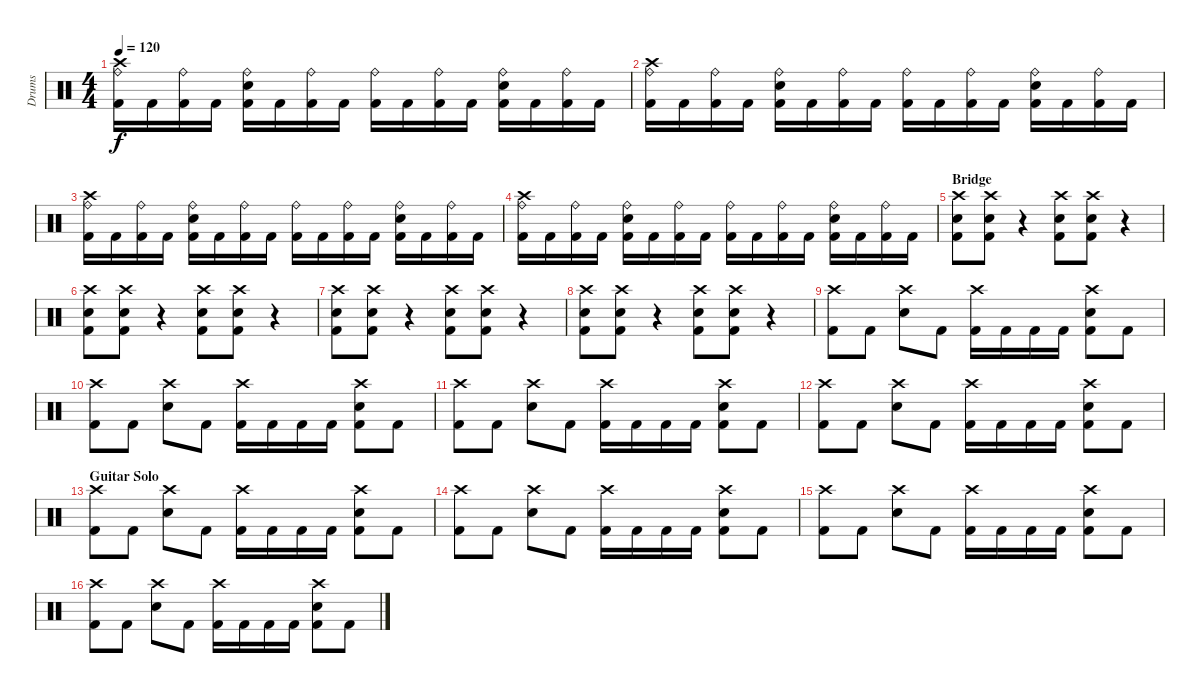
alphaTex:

\track ("Drums" "Drums") {instrument percussion}
\staff {score}
\articulation defaults
\ts (4 4)
\tempo 120
\clef neutral
\ks c
("Crash high (hit)" "Ride (bell)" "Kick (hit) 2").16{dy f} "Kick (hit) 2".16 ("Ride (bell)" "Kick (hit) 2").16 "Kick (hit) 2".16 ("Ride (bell)" "Electric Snare (hit)" "Kick (hit) 2").16 "Kick (hit) 2".16 ("Ride (bell)" "Kick (hit) 2").16 "Kick (hit) 2".16 ("Ride (bell)" "Kick (hit) 2").16 "Kick (hit) 2".16 ("Ride (bell)" "Kick (hit) 2").16 "Kick (hit) 2".16 ("Ride (bell)" "Electric Snare (hit)" "Kick (hit) 2").16 "Kick (hit) 2".16 ("Ride (bell)" "Kick (hit) 2").16 "Kick (hit) 2".16 |
("Crash high (hit)" "Ride (bell)" "Kick (hit) 2").16 "Kick (hit) 2".16 ("Ride (bell)" "Kick (hit) 2").16 "Kick (hit) 2".16 ("Ride (bell)" "Electric Snare (hit)" "Kick (hit) 2").16 "Kick (hit) 2".16 ("Ride (bell)" "Kick (hit) 2").16 "Kick (hit) 2".16 ("Ride (bell)" "Kick (hit) 2").16 "Kick (hit) 2".16 ("Ride (bell)" "Kick (hit) 2").16 "Kick (hit) 2".16 ("Ride (bell)" "Electric Snare (hit)" "Kick (hit) 2").16 "Kick (hit) 2".16 ("Ride (bell)" "Kick (hit) 2").16 "Kick (hit) 2".16 |
("Crash high (hit)" "Ride (bell)" "Kick (hit) 2").16 "Kick (hit) 2".16 ("Ride (bell)" "Kick (hit) 2").16 "Kick (hit) 2".16 ("Ride (bell)" "Electric Snare (hit)" "Kick (hit) 2").16 "Kick (hit) 2".16 ("Ride (bell)" "Kick (hit) 2").16 "Kick (hit) 2".16 ("Ride (bell)" "Kick (hit) 2").16 "Kick (hit) 2".16 ("Ride (bell)" "Kick (hit) 2").16 "Kick (hit) 2".16 ("Ride (bell)" "Electric Snare (hit)" "Kick (hit) 2").16 "Kick (hit) 2".16 ("Ride (bell)" "Kick (hit) 2").16 "Kick (hit) 2".16 |
("Crash high (hit)" "Ride (bell)" "Kick (hit) 2").16 "Kick (hit) 2".16 ("Ride (bell)" "Kick (hit) 2").16 "Kick (hit) 2".16 ("Ride (bell)" "Electric Snare (hit)" "Kick (hit) 2").16 "Kick (hit) 2".16 ("Ride (bell)" "Kick (hit) 2").16 "Kick (hit) 2".16 ("Ride (bell)" "Kick (hit) 2").16 "Kick (hit) 2".16 ("Ride (bell)" "Kick (hit) 2").16 "Kick (hit) 2".16 ("Ride (bell)" "Electric Snare (hit)" "Kick (hit) 2").16 "Kick (hit) 2".16 ("Ride (bell)" "Kick (hit) 2").16 "Kick (hit) 2".16 |
\section ("" "Bridge")
("Crash high (hit)" "Electric Snare (hit)" "Kick (hit) 2").8 ("Crash high (hit)" "Electric Snare (hit)" "Kick (hit) 2").8 r.4 ("Crash high (hit)" "Electric Snare (hit)" "Kick (hit) 2").8 ("Crash high (hit)" "Electric Snare (hit)" "Kick (hit) 2").8 r.4 |
("Crash high (hit)" "Electric Snare (hit)" "Kick (hit) 2").8 ("Crash high (hit)" "Electric Snare (hit)" "Kick (hit) 2").8 r.4 ("Crash high (hit)" "Electric Snare (hit)" "Kick (hit) 2").8 ("Crash high (hit)" "Electric Snare (hit)" "Kick (hit) 2").8 r.4 |
("Crash high (hit)" "Electric Snare (hit)" "Kick (hit) 2").8 ("Crash high (hit)" "Electric Snare (hit)" "Kick (hit) 2").8 r.4 ("Crash high (hit)" "Electric Snare (hit)" "Kick (hit) 2").8 ("Crash high (hit)" "Electric Snare (hit)" "Kick (hit) 2").8 r.4 |
("Crash high (hit)" "Electric Snare (hit)" "Kick (hit) 2").8 ("Crash high (hit)" "Electric Snare (hit)" "Kick (hit) 2").8 r.4 ("Crash high (hit)" "Electric Snare (hit)" "Kick (hit) 2").8 ("Crash high (hit)" "Electric Snare (hit)" "Kick (hit) 2").8 r.4 |
("Crash high (hit)" "Kick (hit) 2").8 "Kick (hit) 2".8 ("Crash high (hit)" "Electric Snare (hit)").8 "Kick (hit) 2".8 ("Crash high (hit)" "Kick (hit) 2").16 "Kick (hit) 2".16 "Kick (hit) 2".16 "Kick (hit) 2".16 ("Crash high (hit)" "Electric Snare (hit)" "Kick (hit) 2").8 "Kick (hit) 2".8 |
("Crash high (hit)" "Kick (hit) 2").8 "Kick (hit) 2".8 ("Crash high (hit)" "Electric Snare (hit)").8 "Kick (hit) 2".8 ("Crash high (hit)" "Kick (hit) 2").16 "Kick (hit) 2".16 "Kick (hit) 2".16 "Kick (hit) 2".16 ("Crash high (hit)" "Electric Snare (hit)" "Kick (hit) 2").8 "Kick (hit) 2".8 |
("Crash high (hit)" "Kick (hit) 2").8 "Kick (hit) 2".8 ("Crash high (hit)" "Electric Snare (hit)").8 "Kick (hit) 2".8 ("Crash high (hit)" "Kick (hit) 2").16 "Kick (hit) 2".16 "Kick (hit) 2".16 "Kick (hit) 2".16 ("Crash high (hit)" "Electric Snare (hit)" "Kick (hit) 2").8 "Kick (hit) 2".8 |
("Crash high (hit)" "Kick (hit) 2").8 "Kick (hit) 2".8 ("Crash high (hit)" "Electric Snare (hit)").8 "Kick (hit) 2".8 ("Crash high (hit)" "Kick (hit) 2").16 "Kick (hit) 2".16 "Kick (hit) 2".16 "Kick (hit) 2".16 ("Crash high (hit)" "Electric Snare (hit)" "Kick (hit) 2").8 "Kick (hit) 2".8 |
\section ("" "Guitar Solo")
("Crash high (hit)" "Kick (hit) 2").8 "Kick (hit) 2".8 ("Crash high (hit)" "Electric Snare (hit)").8 "Kick (hit) 2".8 ("Crash high (hit)" "Kick (hit) 2").16 "Kick (hit) 2".16 "Kick (hit) 2".16 "Kick (hit) 2".16 ("Crash high (hit)" "Electric Snare (hit)" "Kick (hit) 2").8 "Kick (hit) 2".8 |
("Crash high (hit)" "Kick (hit) 2").8 "Kick (hit) 2".8 ("Crash high (hit)" "Electric Snare (hit)").8 "Kick (hit) 2".8 ("Crash high (hit)" "Kick (hit) 2").16 "Kick (hit) 2".16 "Kick (hit) 2".16 "Kick (hit) 2".16 ("Crash high (hit)" "Electric Snare (hit)" "Kick (hit) 2").8 "Kick (hit) 2".8 |
("Crash high (hit)" "Kick (hit) 2").8 "Kick (hit) 2".8 ("Crash high (hit)" "Electric Snare (hit)").8 "Kick (hit) 2".8 ("Crash high (hit)" "Kick (hit) 2").16 "Kick (hit) 2".16 "Kick (hit) 2".16 "Kick (hit) 2".16 ("Crash high (hit)" "Electric Snare (hit)" "Kick (hit) 2").8 "Kick (hit) 2".8 |
("Crash high (hit)" "Kick (hit) 2").8 "Kick (hit) 2".8 ("Crash high (hit)" "Electric Snare (hit)").8 "Kick (hit) 2".8 ("Crash high (hit)" "Kick (hit) 2").16 "Kick (hit) 2".16 "Kick (hit) 2".16 "Kick (hit) 2".16 ("Crash high (hit)" "Electric Snare (hit)" "Kick (hit) 2").8 "Kick (hit) 2".8
